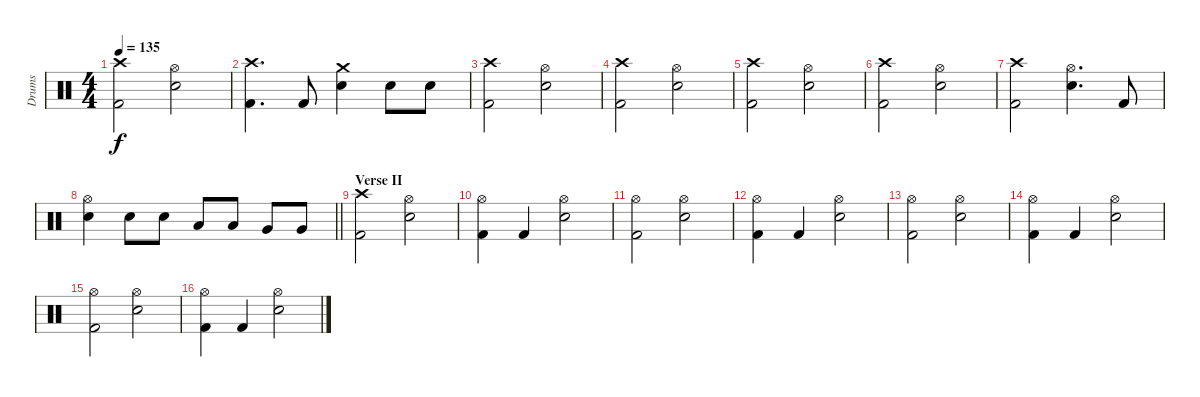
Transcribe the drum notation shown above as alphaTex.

\track ("Drums" "Drums") {instrument percussion}
\staff {score}
\articulation defaults
\ts (4 4)
\tempo 135
\clef neutral
\ks c
("Crash high (hit)" "Kick (hit) 2").2{dy f} ("Hi-Hat (open)" "Electric Snare (hit)").2 |
("Crash high (hit)" "Kick (hit) 2").4{d} "Kick (hit) 2".8 ("Crash medium (hit)" "Electric Snare (hit)").4 "Electric Snare (hit)".8 "Electric Snare (hit)".8 |
("Crash high (hit)" "Kick (hit) 2").2 ("Hi-Hat (open)" "Electric Snare (hit)").2 |
("Crash high (hit)" "Kick (hit) 2").2 ("Hi-Hat (open)" "Electric Snare (hit)").2 |
("Crash high (hit)" "Kick (hit) 2").2 ("Hi-Hat (open)" "Electric Snare (hit)").2 |
("Crash high (hit)" "Kick (hit) 2").2 ("Hi-Hat (open)" "Electric Snare (hit)").2 |
("Crash high (hit)" "Kick (hit) 2").2 ("Hi-Hat (open)" "Electric Snare (hit)").4{d} "Kick (hit) 2".8 |
\barLineRight lightlight
("Hi-Hat (open)" "Electric Snare (hit)").4 "Electric Snare (hit)".8 "Electric Snare (hit)".8 "Low Tom (hit)".8 "Low Tom (hit)".8 "Very Low Tom (hit)".8 "Very Low Tom (hit)".8 |
\section ("" "Verse II")
("Crash high (hit)" "Kick (hit) 2").2 ("Hi-Hat (open)" "Electric Snare (hit)").2 |
("Hi-Hat (open)" "Kick (hit) 2").4 "Kick (hit) 2".4 ("Hi-Hat (open)" "Electric Snare (hit)").2 |
("Hi-Hat (open)" "Kick (hit) 2").2 ("Hi-Hat (open)" "Electric Snare (hit)").2 |
("Hi-Hat (open)" "Kick (hit) 2").4 "Kick (hit) 2".4 ("Hi-Hat (open)" "Electric Snare (hit)").2 |
("Hi-Hat (open)" "Kick (hit) 2").2 ("Hi-Hat (open)" "Electric Snare (hit)").2 |
("Hi-Hat (open)" "Kick (hit) 2").4 "Kick (hit) 2".4 ("Hi-Hat (open)" "Electric Snare (hit)").2 |
("Hi-Hat (open)" "Kick (hit) 2").2 ("Hi-Hat (open)" "Electric Snare (hit)").2 |
("Hi-Hat (open)" "Kick (hit) 2").4 "Kick (hit) 2".4 ("Hi-Hat (open)" "Electric Snare (hit)").2
